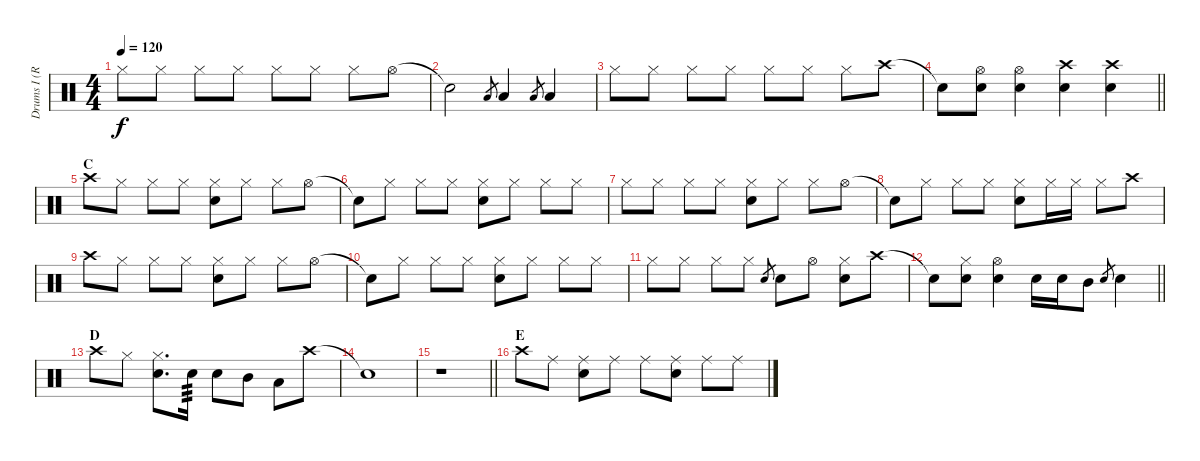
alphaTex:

\track ("Drums I (Ruka)" "Drums I (R") {instrument percussion}
\staff {score}
\articulation defaults
\ts (4 4)
\tempo 120
\clef neutral
\ks c "Hi-Hat (closed)".8{dy f} "Hi-Hat (closed)".8 "Hi-Hat (closed)".8 "Hi-Hat (closed)".8 "Hi-Hat (closed)".8 "Hi-Hat (closed)".8 "Hi-Hat (closed)".8 "Hi-Hat (open)".8
|
"Snare (hit)"{t}.2 "Low Tom (hit)".8{gr} "Low Tom (hit)".4 "Low Tom (hit)".8{gr} "Low Tom (hit)".4 |
"Hi-Hat (closed)".8 "Hi-Hat (closed)".8 "Hi-Hat (closed)".8 "Hi-Hat (closed)".8 "Hi-Hat (closed)".8 "Hi-Hat (closed)".8 "Hi-Hat (closed)".8 "Crash high (hit)".8 |
\barLineRight lightlight "Snare (hit)"{t}.8
("Hi-Hat (open)" "Snare (hit) 2").8 ("Hi-Hat (open)" "Snare (hit) 2").4 ("Crash high (hit)" "Snare (hit) 2").4 ("Crash high (hit)" "Snare (hit) 2").4 |
\section ("" "C")
"Crash high (hit)".8 "Hi-Hat (closed)".8 "Hi-Hat (closed)".8 "Hi-Hat (closed)".8 ("Hi-Hat (closed)" "Snare (hit) 2").8 "Hi-Hat (closed)".8 "Hi-Hat (closed)".8 "Hi-Hat (open)".8 |
"Snare (hit)"{t}.8 "Hi-Hat (closed)".8 "Hi-Hat (closed)".8 "Hi-Hat (closed)".8 ("Hi-Hat (closed)" "Snare (hit) 2").8 "Hi-Hat (closed)".8 "Hi-Hat (closed)".8 "Hi-Hat (closed)".8 |
"Hi-Hat (closed)".8 "Hi-Hat (closed)".8 "Hi-Hat (closed)".8 "Hi-Hat (closed)".8 ("Hi-Hat (closed)" "Snare (hit) 2").8 "Hi-Hat (closed)".8 "Hi-Hat (closed)".8 "Hi-Hat (open)".8 |
"Snare (hit)"{t}.8 "Hi-Hat (closed)".8 "Hi-Hat (closed)".8 "Hi-Hat (closed)".8 ("Hi-Hat (closed)" "Snare (hit) 2").8 "Hi-Hat (closed)".16 "Hi-Hat (closed)".16 "Hi-Hat (closed)".8 "Crash high (hit)".8 |
"Crash high (hit)".8 "Hi-Hat (closed)".8 "Hi-Hat (closed)".8 "Hi-Hat (closed)".8 ("Hi-Hat (closed)" "Snare (hit) 2").8 "Hi-Hat (closed)".8 "Hi-Hat (closed)".8 "Hi-Hat (open)".8 |
"Snare (hit)"{t}.8 "Hi-Hat (closed)".8 "Hi-Hat (closed)".8 "Hi-Hat (closed)".8 ("Hi-Hat (closed)" "Snare (hit) 2").8 "Hi-Hat (closed)".8 "Hi-Hat (closed)".8 "Hi-Hat (closed)".8 |
"Hi-Hat (closed)".8 "Hi-Hat (closed)".8 "Hi-Hat (closed)".8 "Hi-Hat (closed)".8 "Snare (hit) 2".8{gr} "Snare (hit) 2".8 "Hi-Hat (open)".8 ("Hi-Hat (closed)" "Snare (hit) 2").8 "Crash high (hit)".8 |
\barLineRight lightlight "Snare (hit)"{t}.8
("Hi-Hat (closed)" "Snare (hit) 2").8 ("Hi-Hat (open)" "Snare (hit) 2").4 "Snare (hit) 2".16 "Snare (hit) 2".16 "Mid Tom (hit)".8 "Snare (hit) 2".8{gr} "Snare (hit) 2".4 |
\section ("" "D")
"Crash high (hit)".8 "Hi-Hat (closed)".8 ("Hi-Hat (closed)" "Snare (hit) 2").8{d} "Snare (hit) 2".16{tp 3} "Snare (hit) 2".8 "Mid Tom (hit)".8 "Low Floor Tom (hit)".8 "Crash high (hit)".8 |
"Snare (hit)"{t}.1 |
\barLineRight lightlight
r.1 |
\section ("" "E")
"Crash high (hit)".8{volume 16} "Ride (middle)".8 ("Ride (middle)" "Snare (hit) 2").8 "Ride (middle)".8 "Ride (middle)".8 ("Ride (middle)" "Snare (hit) 2").8 "Ride (middle)".8 "Ride (middle)".8
